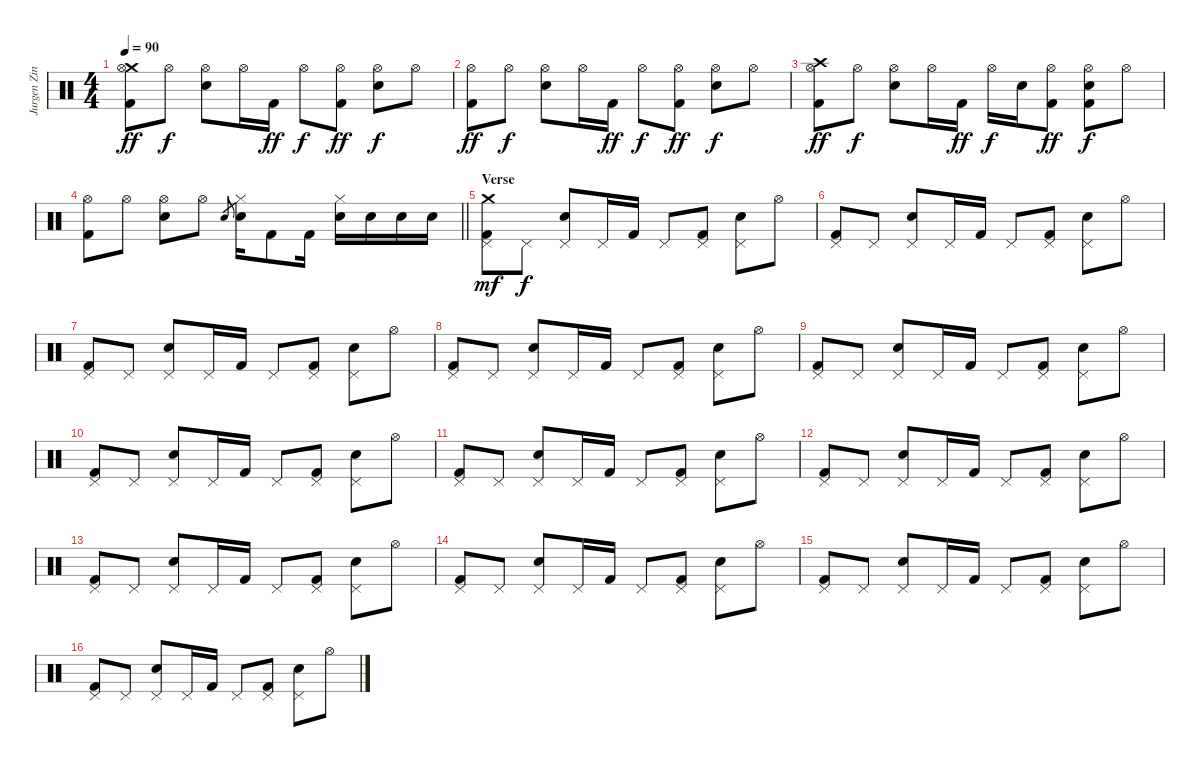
\track ("Jurgen Zing" "Jurgen Zin") {instrument percussion}
\staff {score}
\articulation defaults
\ts (4 4)
\tempo 90
\clef neutral
\ks c
("Crash medium (hit)" "Hi-Hat (open)" "Kick (hit) 2").8{dy ff} "Hi-Hat (open)".8{dy f} ("Hi-Hat (open)" "Electric Snare (hit)").8 "Hi-Hat (open)".16 "Kick (hit) 2".16{dy ff} "Hi-Hat (open)".8{dy f} ("Hi-Hat (open)" "Kick (hit) 2").8{dy ff} ("Hi-Hat (open)" "Electric Snare (hit)").8{dy f} "Hi-Hat (open)".8 |
("Hi-Hat (open)" "Kick (hit) 2").8{dy ff} "Hi-Hat (open)".8{dy f} ("Hi-Hat (open)" "Electric Snare (hit)").8 "Hi-Hat (open)".16 "Kick (hit) 2".16{dy ff} "Hi-Hat (open)".8{dy f} ("Hi-Hat (open)" "Kick (hit) 2").8{dy ff} ("Hi-Hat (open)" "Electric Snare (hit)").8{dy f} "Hi-Hat (open)".8 |
("Crash high (hit)" "Hi-Hat (open)" "Kick (hit) 2").8{dy ff} "Hi-Hat (open)".8{dy f} ("Hi-Hat (open)" "Electric Snare (hit)").8 "Hi-Hat (open)".16 "Kick (hit) 2".16{dy ff} "Hi-Hat (open)".16{dy f} "Electric Snare (hit)".16 ("Hi-Hat (open)" "Kick (hit) 2").8{dy ff} ("Hi-Hat (open)" "Electric Snare (hit)" "Kick (hit) 2").8{dy f} "Hi-Hat (open)".8 |
\barLineRight lightlight
("Hi-Hat (open)" "Kick (hit) 2").8 "Hi-Hat (open)".8 ("Hi-Hat (open)" "Electric Snare (hit)").8 "Hi-Hat (open)".8 "Electric Snare (hit)".8{gr} ("Hi-Hat (closed)" "Electric Snare (hit)").16 "Kick (hit) 2".8 "Kick (hit) 2".16 ("Hi-Hat (closed)" "Electric Snare (hit)").16 "Electric Snare (hit)".16 "Electric Snare (hit)".16 "Electric Snare (hit)".16 |
\section ("" "Verse")
("Crash medium (hit)" "Pedal Hi-Hat (hit)" "Kick (hit) 2").8{dy mf} "Pedal Hi-Hat (hit)".8{dy f} ("Pedal Hi-Hat (hit)" "Electric Snare (hit)").8 "Pedal Hi-Hat (hit)".16 "Kick (hit) 2".16 "Pedal Hi-Hat (hit)".8 ("Pedal Hi-Hat (hit)" "Kick (hit) 2").8 ("Pedal Hi-Hat (hit)" "Electric Snare (hit)").8 "Hi-Hat (open)".8 |
("Pedal Hi-Hat (hit)" "Kick (hit) 2").8 "Pedal Hi-Hat (hit)".8 ("Pedal Hi-Hat (hit)" "Electric Snare (hit)").8 "Pedal Hi-Hat (hit)".16 "Kick (hit) 2".16 "Pedal Hi-Hat (hit)".8 ("Pedal Hi-Hat (hit)" "Kick (hit) 2").8 ("Pedal Hi-Hat (hit)" "Electric Snare (hit)").8 "Hi-Hat (open)".8 |
("Pedal Hi-Hat (hit)" "Kick (hit) 2").8 "Pedal Hi-Hat (hit)".8 ("Pedal Hi-Hat (hit)" "Electric Snare (hit)").8 "Pedal Hi-Hat (hit)".16 "Kick (hit) 2".16 "Pedal Hi-Hat (hit)".8 ("Pedal Hi-Hat (hit)" "Kick (hit) 2").8 ("Pedal Hi-Hat (hit)" "Electric Snare (hit)").8 "Hi-Hat (open)".8 |
("Pedal Hi-Hat (hit)" "Kick (hit) 2").8 "Pedal Hi-Hat (hit)".8 ("Pedal Hi-Hat (hit)" "Electric Snare (hit)").8 "Pedal Hi-Hat (hit)".16 "Kick (hit) 2".16 "Pedal Hi-Hat (hit)".8 ("Pedal Hi-Hat (hit)" "Kick (hit) 2").8 ("Pedal Hi-Hat (hit)" "Electric Snare (hit)").8 "Hi-Hat (open)".8 |
("Pedal Hi-Hat (hit)" "Kick (hit) 2").8 "Pedal Hi-Hat (hit)".8 ("Pedal Hi-Hat (hit)" "Electric Snare (hit)").8 "Pedal Hi-Hat (hit)".16 "Kick (hit) 2".16 "Pedal Hi-Hat (hit)".8 ("Pedal Hi-Hat (hit)" "Kick (hit) 2").8 ("Pedal Hi-Hat (hit)" "Electric Snare (hit)").8 "Hi-Hat (open)".8 |
("Pedal Hi-Hat (hit)" "Kick (hit) 2").8 "Pedal Hi-Hat (hit)".8 ("Pedal Hi-Hat (hit)" "Electric Snare (hit)").8 "Pedal Hi-Hat (hit)".16 "Kick (hit) 2".16 "Pedal Hi-Hat (hit)".8 ("Pedal Hi-Hat (hit)" "Kick (hit) 2").8 ("Pedal Hi-Hat (hit)" "Electric Snare (hit)").8 "Hi-Hat (open)".8 |
("Pedal Hi-Hat (hit)" "Kick (hit) 2").8 "Pedal Hi-Hat (hit)".8 ("Pedal Hi-Hat (hit)" "Electric Snare (hit)").8 "Pedal Hi-Hat (hit)".16 "Kick (hit) 2".16 "Pedal Hi-Hat (hit)".8 ("Pedal Hi-Hat (hit)" "Kick (hit) 2").8 ("Pedal Hi-Hat (hit)" "Electric Snare (hit)").8 "Hi-Hat (open)".8 |
("Pedal Hi-Hat (hit)" "Kick (hit) 2").8 "Pedal Hi-Hat (hit)".8 ("Pedal Hi-Hat (hit)" "Electric Snare (hit)").8 "Pedal Hi-Hat (hit)".16 "Kick (hit) 2".16 "Pedal Hi-Hat (hit)".8 ("Pedal Hi-Hat (hit)" "Kick (hit) 2").8 ("Pedal Hi-Hat (hit)" "Electric Snare (hit)").8 "Hi-Hat (open)".8 |
("Pedal Hi-Hat (hit)" "Kick (hit) 2").8 "Pedal Hi-Hat (hit)".8 ("Pedal Hi-Hat (hit)" "Electric Snare (hit)").8 "Pedal Hi-Hat (hit)".16 "Kick (hit) 2".16 "Pedal Hi-Hat (hit)".8 ("Pedal Hi-Hat (hit)" "Kick (hit) 2").8 ("Pedal Hi-Hat (hit)" "Electric Snare (hit)").8 "Hi-Hat (open)".8 |
("Pedal Hi-Hat (hit)" "Kick (hit) 2").8 "Pedal Hi-Hat (hit)".8 ("Pedal Hi-Hat (hit)" "Electric Snare (hit)").8 "Pedal Hi-Hat (hit)".16 "Kick (hit) 2".16 "Pedal Hi-Hat (hit)".8 ("Pedal Hi-Hat (hit)" "Kick (hit) 2").8 ("Pedal Hi-Hat (hit)" "Electric Snare (hit)").8 "Hi-Hat (open)".8 |
("Pedal Hi-Hat (hit)" "Kick (hit) 2").8 "Pedal Hi-Hat (hit)".8 ("Pedal Hi-Hat (hit)" "Electric Snare (hit)").8 "Pedal Hi-Hat (hit)".16 "Kick (hit) 2".16 "Pedal Hi-Hat (hit)".8 ("Pedal Hi-Hat (hit)" "Kick (hit) 2").8 ("Pedal Hi-Hat (hit)" "Electric Snare (hit)").8 "Hi-Hat (open)".8 |
("Pedal Hi-Hat (hit)" "Kick (hit) 2").8 "Pedal Hi-Hat (hit)".8 ("Pedal Hi-Hat (hit)" "Electric Snare (hit)").8 "Pedal Hi-Hat (hit)".16 "Kick (hit) 2".16 "Pedal Hi-Hat (hit)".8 ("Pedal Hi-Hat (hit)" "Kick (hit) 2").8 ("Pedal Hi-Hat (hit)" "Electric Snare (hit)").8 "Hi-Hat (open)".8
